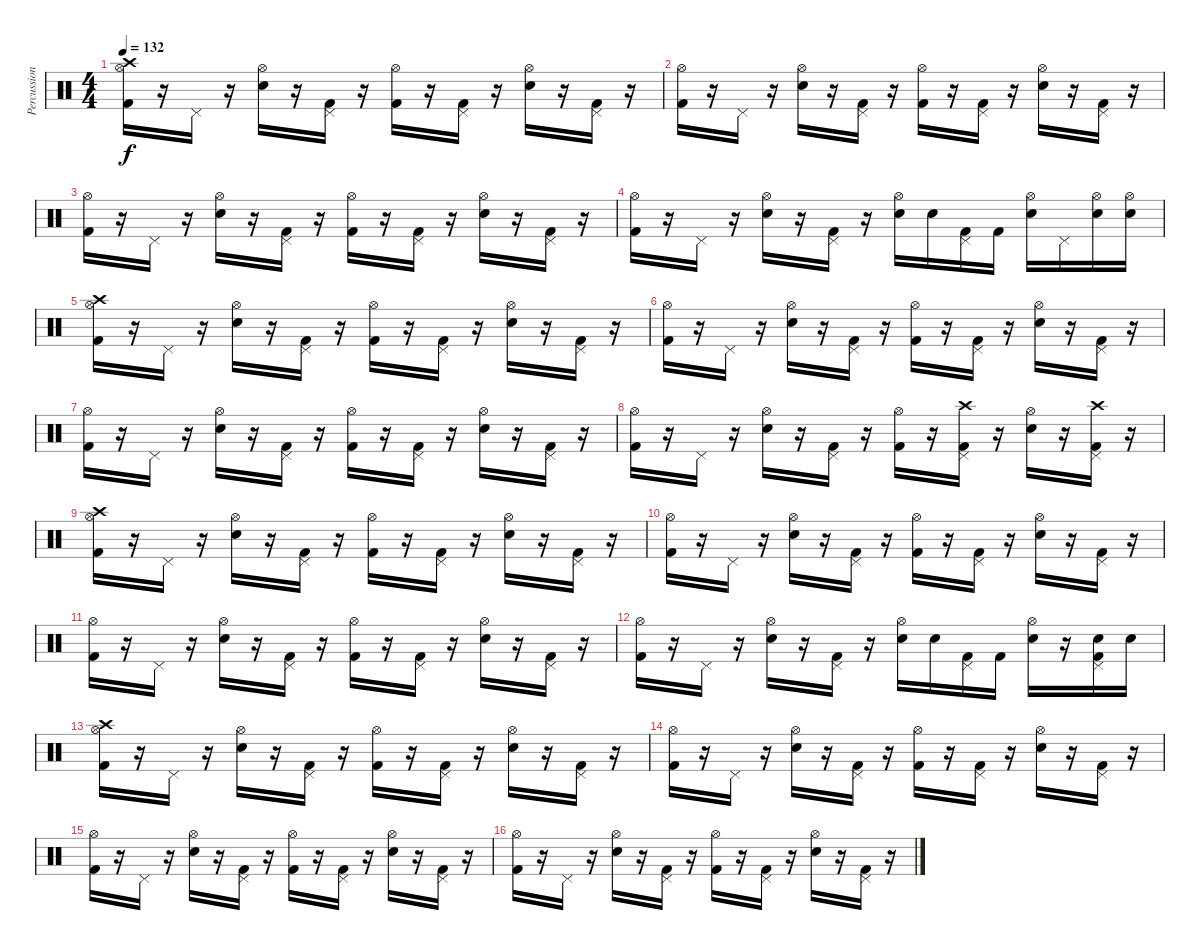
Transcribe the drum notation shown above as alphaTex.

\track ("Percussion" "Percussion") {instrument percussion}
\staff {score}
\articulation defaults
\ts (4 4)
\tempo 132
\clef neutral
\ks c
("Kick (hit) 2" "Crash high (hit)" "Hi-Hat (open)").16{dy f} r.16 "Pedal Hi-Hat (hit)".16 r.16 ("Snare (hit) 2" "Hi-Hat (open)").16 r.16 ("Kick (hit) 2" "Pedal Hi-Hat (hit)").16 r.16 ("Kick (hit) 2" "Hi-Hat (open)").16 r.16 ("Kick (hit) 2" "Pedal Hi-Hat (hit)").16 r.16 ("Snare (hit) 2" "Hi-Hat (open)").16 r.16 ("Kick (hit) 2" "Pedal Hi-Hat (hit)").16 r.16 |
("Kick (hit) 2" "Hi-Hat (open)").16 r.16 "Pedal Hi-Hat (hit)".16 r.16 ("Snare (hit) 2" "Hi-Hat (open)").16 r.16 ("Kick (hit) 2" "Pedal Hi-Hat (hit)").16 r.16 ("Kick (hit) 2" "Hi-Hat (open)").16 r.16 ("Kick (hit) 2" "Pedal Hi-Hat (hit)").16 r.16 ("Snare (hit) 2" "Hi-Hat (open)").16 r.16 ("Kick (hit) 2" "Pedal Hi-Hat (hit)").16 r.16 |
("Kick (hit) 2" "Hi-Hat (open)").16 r.16 "Pedal Hi-Hat (hit)".16 r.16 ("Snare (hit) 2" "Hi-Hat (open)").16 r.16 ("Kick (hit) 2" "Pedal Hi-Hat (hit)").16 r.16 ("Kick (hit) 2" "Hi-Hat (open)").16 r.16 ("Kick (hit) 2" "Pedal Hi-Hat (hit)").16 r.16 ("Snare (hit) 2" "Hi-Hat (open)").16 r.16 ("Kick (hit) 2" "Pedal Hi-Hat (hit)").16 r.16 |
("Hi-Hat (open)" "Kick (hit) 2").16 r.16 "Pedal Hi-Hat (hit)".16 r.16 ("Hi-Hat (open)" "Snare (hit) 2").16 r.16 ("Pedal Hi-Hat (hit)" "Kick (hit) 2").16 r.16 ("Snare (hit) 2" "Hi-Hat (open)").16 "Snare (hit) 2".16 ("Kick (hit) 2" "Pedal Hi-Hat (hit)").16 "Kick (hit) 2".16 ("Snare (hit) 2" "Hi-Hat (open)").16 "Pedal Hi-Hat (hit)".16 ("Snare (hit) 2" "Hi-Hat (open)").16 ("Snare (hit) 2" "Hi-Hat (open)").16 |
("Crash high (hit)" "Hi-Hat (open)" "Kick (hit) 2").16 r.16 "Pedal Hi-Hat (hit)".16 r.16 ("Hi-Hat (open)" "Snare (hit) 2").16 r.16 ("Pedal Hi-Hat (hit)" "Kick (hit) 2").16 r.16 ("Hi-Hat (open)" "Kick (hit) 2").16 r.16 ("Pedal Hi-Hat (hit)" "Kick (hit) 2").16 r.16 ("Hi-Hat (open)" "Snare (hit) 2").16 r.16 ("Pedal Hi-Hat (hit)" "Kick (hit) 2").16 r.16 |
("Kick (hit) 2" "Hi-Hat (open)").16 r.16 "Pedal Hi-Hat (hit)".16 r.16 ("Snare (hit) 2" "Hi-Hat (open)").16 r.16 ("Kick (hit) 2" "Pedal Hi-Hat (hit)").16 r.16 ("Kick (hit) 2" "Hi-Hat (open)").16 r.16 ("Kick (hit) 2" "Pedal Hi-Hat (hit)").16 r.16 ("Snare (hit) 2" "Hi-Hat (open)").16 r.16 ("Kick (hit) 2" "Pedal Hi-Hat (hit)").16 r.16 |
("Kick (hit) 2" "Hi-Hat (open)").16 r.16 "Pedal Hi-Hat (hit)".16 r.16 ("Snare (hit) 2" "Hi-Hat (open)").16 r.16 ("Kick (hit) 2" "Pedal Hi-Hat (hit)").16 r.16 ("Kick (hit) 2" "Hi-Hat (open)").16 r.16 ("Kick (hit) 2" "Pedal Hi-Hat (hit)").16 r.16 ("Snare (hit) 2" "Hi-Hat (open)").16 r.16 ("Kick (hit) 2" "Pedal Hi-Hat (hit)").16 r.16 |
("Kick (hit) 2" "Hi-Hat (open)").16 r.16 "Pedal Hi-Hat (hit)".16 r.16 ("Snare (hit) 2" "Hi-Hat (open)").16 r.16 ("Kick (hit) 2" "Pedal Hi-Hat (hit)").16 r.16 ("Kick (hit) 2" "Hi-Hat (open)").16 r.16 ("Kick (hit) 2" "Pedal Hi-Hat (hit)" "Crash high (hit)").16 r.16 ("Snare (hit) 2" "Hi-Hat (open)").16 r.16 ("Kick (hit) 2" "Pedal Hi-Hat (hit)" "Crash high (hit)").16 r.16 |
("Crash high (hit)" "Hi-Hat (open)" "Kick (hit) 2").16 r.16 "Pedal Hi-Hat (hit)".16 r.16 ("Hi-Hat (open)" "Snare (hit) 2").16 r.16 ("Pedal Hi-Hat (hit)" "Kick (hit) 2").16 r.16 ("Hi-Hat (open)" "Kick (hit) 2").16 r.16 ("Pedal Hi-Hat (hit)" "Kick (hit) 2").16 r.16 ("Hi-Hat (open)" "Snare (hit) 2").16 r.16 ("Pedal Hi-Hat (hit)" "Kick (hit) 2").16 r.16 |
("Kick (hit) 2" "Hi-Hat (open)").16 r.16 "Pedal Hi-Hat (hit)".16 r.16 ("Snare (hit) 2" "Hi-Hat (open)").16 r.16 ("Kick (hit) 2" "Pedal Hi-Hat (hit)").16 r.16 ("Kick (hit) 2" "Hi-Hat (open)").16 r.16 ("Kick (hit) 2" "Pedal Hi-Hat (hit)").16 r.16 ("Snare (hit) 2" "Hi-Hat (open)").16 r.16 ("Kick (hit) 2" "Pedal Hi-Hat (hit)").16 r.16 |
("Kick (hit) 2" "Hi-Hat (open)").16 r.16 "Pedal Hi-Hat (hit)".16 r.16 ("Snare (hit) 2" "Hi-Hat (open)").16 r.16 ("Kick (hit) 2" "Pedal Hi-Hat (hit)").16 r.16 ("Kick (hit) 2" "Hi-Hat (open)").16 r.16 ("Kick (hit) 2" "Pedal Hi-Hat (hit)").16 r.16 ("Snare (hit) 2" "Hi-Hat (open)").16 r.16 ("Kick (hit) 2" "Pedal Hi-Hat (hit)").16 r.16 |
("Hi-Hat (open)" "Kick (hit) 2").16 r.16 "Pedal Hi-Hat (hit)".16 r.16 ("Snare (hit) 2" "Hi-Hat (open)").16 r.16 ("Kick (hit) 2" "Pedal Hi-Hat (hit)").16 r.16 ("Hi-Hat (open)" "Snare (hit) 2").16 "Snare (hit) 2".16 ("Kick (hit) 2" "Pedal Hi-Hat (hit)").16 "Kick (hit) 2".16 ("Snare (hit) 2" "Hi-Hat (open)").16 r.16 ("Kick (hit) 2" "Pedal Hi-Hat (hit)" "Snare (hit) 2").16 "Snare (hit) 2".16 |
("Crash high (hit)" "Hi-Hat (open)" "Kick (hit) 2").16 r.16 "Pedal Hi-Hat (hit)".16 r.16 ("Hi-Hat (open)" "Snare (hit) 2").16 r.16 ("Pedal Hi-Hat (hit)" "Kick (hit) 2").16 r.16 ("Hi-Hat (open)" "Kick (hit) 2").16 r.16 ("Pedal Hi-Hat (hit)" "Kick (hit) 2").16 r.16 ("Hi-Hat (open)" "Snare (hit) 2").16 r.16 ("Pedal Hi-Hat (hit)" "Kick (hit) 2").16 r.16 |
("Kick (hit) 2" "Hi-Hat (open)").16 r.16 "Pedal Hi-Hat (hit)".16 r.16 ("Snare (hit) 2" "Hi-Hat (open)").16 r.16 ("Kick (hit) 2" "Pedal Hi-Hat (hit)").16 r.16 ("Kick (hit) 2" "Hi-Hat (open)").16 r.16 ("Kick (hit) 2" "Pedal Hi-Hat (hit)").16 r.16 ("Snare (hit) 2" "Hi-Hat (open)").16 r.16 ("Kick (hit) 2" "Pedal Hi-Hat (hit)").16 r.16 |
("Kick (hit) 2" "Hi-Hat (open)").16 r.16 "Pedal Hi-Hat (hit)".16 r.16 ("Snare (hit) 2" "Hi-Hat (open)").16 r.16 ("Kick (hit) 2" "Pedal Hi-Hat (hit)").16 r.16 ("Kick (hit) 2" "Hi-Hat (open)").16 r.16 ("Kick (hit) 2" "Pedal Hi-Hat (hit)").16 r.16 ("Snare (hit) 2" "Hi-Hat (open)").16 r.16 ("Kick (hit) 2" "Pedal Hi-Hat (hit)").16 r.16 |
("Kick (hit) 2" "Hi-Hat (open)").16 r.16 "Pedal Hi-Hat (hit)".16 r.16 ("Snare (hit) 2" "Hi-Hat (open)").16 r.16 ("Kick (hit) 2" "Pedal Hi-Hat (hit)").16 r.16 ("Kick (hit) 2" "Hi-Hat (open)").16 r.16 ("Kick (hit) 2" "Pedal Hi-Hat (hit)").16 r.16 ("Snare (hit) 2" "Hi-Hat (open)").16 r.16 ("Kick (hit) 2" "Pedal Hi-Hat (hit)").16 r.16
